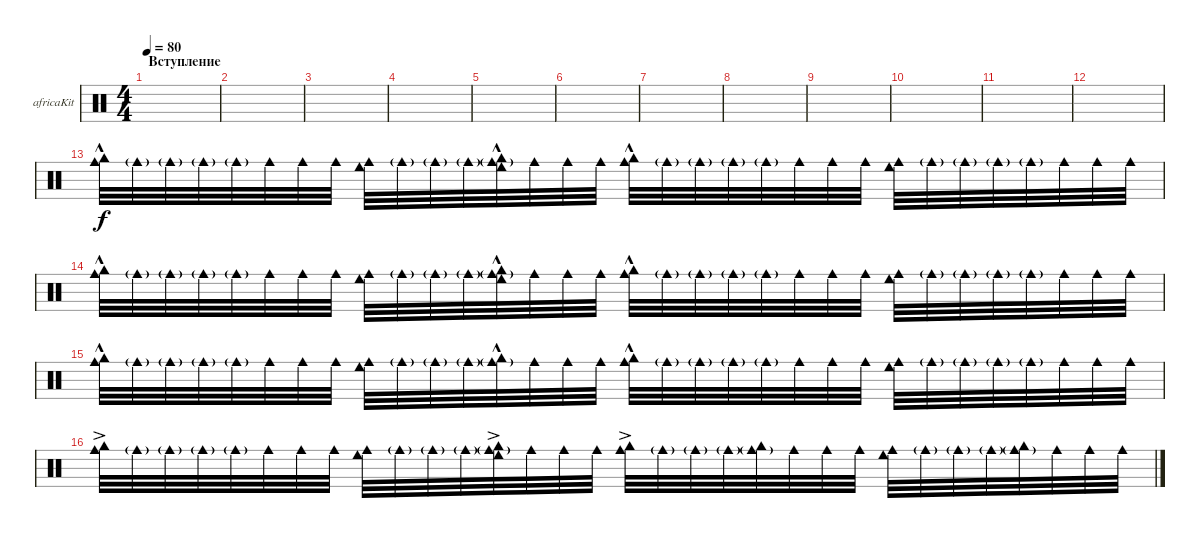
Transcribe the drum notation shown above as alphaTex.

\defaultSystemsLayout 4
\bracketExtendMode groupsimilarinstruments
\firstSystemTrackNameOrientation horizontal
\otherSystemsTrackNameOrientation horizontal
\track ("Kit-Africa" "africaKit") {instrument percussion}
\staff {score}
\articulation defaults
\ts (4 4)
\section ("" "Вступление")
\tempo 80
\clef neutral
\scale
0.472222
\ks c
|
\scale
0.263889 |
\scale
0.263889 |
\scale
0.333333 |
\scale
0.333333 |
\scale
0.333333 |
\scale
0.333333 |
\scale
0.333333 |
\scale
0.333333 |
\scale
0.333333 |
\scale
0.333333 |
\scale
0.333333 |
\scale
0.333333 ("Cowbell medium (hit)" "Cowbell high (hit)"{hac}).32 "Cowbell medium (hit)"{g}.32 "Cowbell medium (hit)"{g}.32 "Cowbell medium (hit)"{g}.32 "Cowbell medium (hit)"{g}.32 "Cowbell medium (hit)".32 "Cowbell medium (hit)".32 "Cowbell medium (hit)".32 ("Cowbell medium (hit)" "Cowbell low (hit)").32 "Cowbell medium (hit)"{g}.32 "Cowbell medium (hit)"{g}.32 "Cowbell medium (hit)"{g}.32 ("Cowbell medium (hit)"{g} "Cowbell high (hit)"{hac} "Cowbell low (hit)").32 "Cowbell medium (hit)".32 "Cowbell medium (hit)".32 "Cowbell medium (hit)".32 ("Cowbell medium (hit)" "Cowbell high (hit)"{hac}).32 "Cowbell medium (hit)"{g}.32 "Cowbell medium (hit)"{g}.32 "Cowbell medium (hit)"{g}.32 "Cowbell medium (hit)"{g}.32 "Cowbell medium (hit)".32 "Cowbell medium (hit)".32 "Cowbell medium (hit)".32 ("Cowbell medium (hit)" "Cowbell low (hit)").32 "Cowbell medium (hit)"{g}.32 "Cowbell medium (hit)"{g}.32 "Cowbell medium (hit)"{g}.32 "Cowbell medium (hit)"{g}.32 "Cowbell medium (hit)".32 "Cowbell medium (hit)".32 "Cowbell medium (hit)".32 |
\scale
0.333333 ("Cowbell medium (hit)" "Cowbell high (hit)"{hac}).32 "Cowbell medium (hit)"{g}.32 "Cowbell medium (hit)"{g}.32 "Cowbell medium (hit)"{g}.32 "Cowbell medium (hit)"{g}.32 "Cowbell medium (hit)".32 "Cowbell medium (hit)".32 "Cowbell medium (hit)".32 ("Cowbell medium (hit)" "Cowbell low (hit)").32 "Cowbell medium (hit)"{g}.32 "Cowbell medium (hit)"{g}.32 "Cowbell medium (hit)"{g}.32 ("Cowbell medium (hit)"{g} "Cowbell high (hit)"{hac} "Cowbell low (hit)").32 "Cowbell medium (hit)".32 "Cowbell medium (hit)".32 "Cowbell medium (hit)".32 ("Cowbell medium (hit)" "Cowbell high (hit)"{hac}).32 "Cowbell medium (hit)"{g}.32 "Cowbell medium (hit)"{g}.32 "Cowbell medium (hit)"{g}.32 "Cowbell medium (hit)"{g}.32 "Cowbell medium (hit)".32 "Cowbell medium (hit)".32 "Cowbell medium (hit)".32 ("Cowbell medium (hit)" "Cowbell low (hit)").32 "Cowbell medium (hit)"{g}.32 "Cowbell medium (hit)"{g}.32 "Cowbell medium (hit)"{g}.32 "Cowbell medium (hit)"{g}.32 "Cowbell medium (hit)".32 "Cowbell medium (hit)".32 "Cowbell medium (hit)".32 |
\scale
0.333333 ("Cowbell medium (hit)" "Cowbell high (hit)"{hac}).32 "Cowbell medium (hit)"{g}.32 "Cowbell medium (hit)"{g}.32 "Cowbell medium (hit)"{g}.32 "Cowbell medium (hit)"{g}.32 "Cowbell medium (hit)".32 "Cowbell medium (hit)".32 "Cowbell medium (hit)".32 ("Cowbell medium (hit)" "Cowbell low (hit)").32 "Cowbell medium (hit)"{g}.32 "Cowbell medium (hit)"{g}.32 "Cowbell medium (hit)"{g}.32 ("Cowbell medium (hit)"{g} "Cowbell high (hit)"{hac}).32 "Cowbell medium (hit)".32 "Cowbell medium (hit)".32 "Cowbell medium (hit)".32 ("Cowbell medium (hit)" "Cowbell high (hit)"{hac}).32 "Cowbell medium (hit)"{g}.32 "Cowbell medium (hit)"{g}.32 "Cowbell medium (hit)"{g}.32 "Cowbell medium (hit)"{g}.32 "Cowbell medium (hit)".32 "Cowbell medium (hit)".32 "Cowbell medium (hit)".32 ("Cowbell medium (hit)" "Cowbell low (hit)").32 "Cowbell medium (hit)"{g}.32 "Cowbell medium (hit)"{g}.32 "Cowbell medium (hit)"{g}.32 "Cowbell medium (hit)"{g}.32 "Cowbell medium (hit)".32 "Cowbell medium (hit)".32 "Cowbell medium (hit)".32 |
\scale
0.333333 ("Cowbell medium (hit)" "Cowbell high (hit)"{ac}).32 "Cowbell medium (hit)"{g}.32 "Cowbell medium (hit)"{g}.32 "Cowbell medium (hit)"{g}.32 "Cowbell medium (hit)"{g}.32 "Cowbell medium (hit)".32 "Cowbell medium (hit)".32 "Cowbell medium (hit)".32 ("Cowbell medium (hit)" "Cowbell low (hit)").32 "Cowbell medium (hit)"{g}.32 "Cowbell medium (hit)"{g}.32 "Cowbell medium (hit)"{g}.32 ("Cowbell medium (hit)"{g} "Cowbell high (hit)"{ac} "Cowbell low (hit)").32 "Cowbell medium (hit)".32 "Cowbell medium (hit)".32 "Cowbell medium (hit)".32 ("Cowbell medium (hit)" "Cowbell high (hit)"{ac}).32 "Cowbell medium (hit)"{g}.32 "Cowbell medium (hit)"{g}.32 "Cowbell medium (hit)"{g}.32 ("Cowbell medium (hit)"{g} "Cowbell high (hit)").32 "Cowbell medium (hit)".32 "Cowbell medium (hit)".32 "Cowbell medium (hit)".32 ("Cowbell medium (hit)" "Cowbell low (hit)").32 "Cowbell medium (hit)"{g}.32 "Cowbell medium (hit)"{g}.32 "Cowbell medium (hit)"{g}.32 ("Cowbell medium (hit)"{g} "Cowbell high (hit)").32 "Cowbell medium (hit)".32 "Cowbell medium (hit)".32 "Cowbell medium (hit)".32
